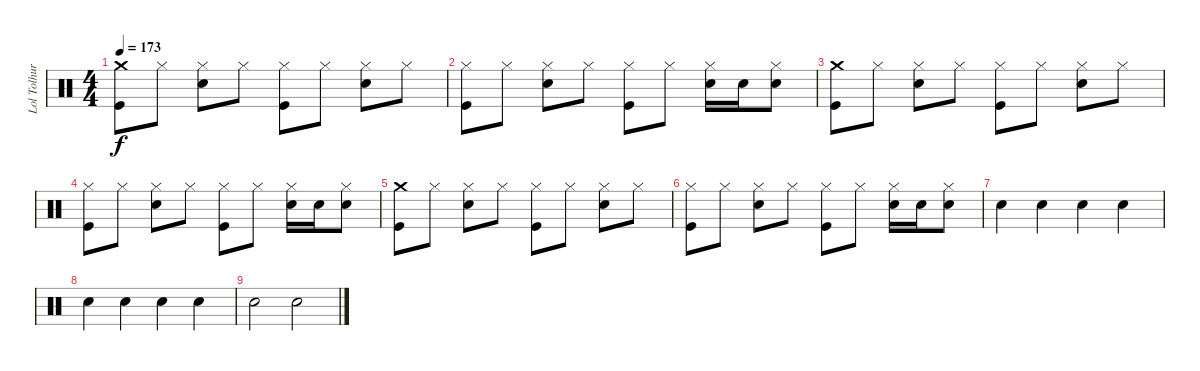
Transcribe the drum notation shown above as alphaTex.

\track ("Lol Tolhurst" "Lol Tolhur") {instrument percussion}
\staff {score}
\articulation defaults
\ts (4 4)
\tempo 173
\clef neutral
\ks c
("Crash medium (hit)" "Kick (hit)").8{dy f} "Hi-Hat (closed)".8 ("Hi-Hat (closed)" "Snare (hit) 2").8 "Hi-Hat (closed)".8 ("Hi-Hat (closed)" "Kick (hit)").8 "Hi-Hat (closed)".8 ("Hi-Hat (closed)" "Snare (hit) 2").8 "Hi-Hat (closed)".8 |
("Hi-Hat (closed)" "Kick (hit)").8 "Hi-Hat (closed)".8 ("Hi-Hat (closed)" "Snare (hit) 2").8 "Hi-Hat (closed)".8 ("Hi-Hat (closed)" "Kick (hit)").8 "Hi-Hat (closed)".8 ("Hi-Hat (closed)" "Snare (hit) 2").16 "Snare (hit) 2".16 ("Hi-Hat (closed)" "Snare (hit) 2").8 |
("Crash medium (hit)" "Kick (hit)").8 "Hi-Hat (closed)".8 ("Hi-Hat (closed)" "Snare (hit) 2").8 "Hi-Hat (closed)".8 ("Hi-Hat (closed)" "Kick (hit)").8 "Hi-Hat (closed)".8 ("Hi-Hat (closed)" "Snare (hit) 2").8 "Hi-Hat (closed)".8 |
("Hi-Hat (closed)" "Kick (hit)").8 "Hi-Hat (closed)".8 ("Hi-Hat (closed)" "Snare (hit) 2").8 "Hi-Hat (closed)".8 ("Hi-Hat (closed)" "Kick (hit)").8 "Hi-Hat (closed)".8 ("Hi-Hat (closed)" "Snare (hit) 2").16 "Snare (hit) 2".16 ("Hi-Hat (closed)" "Snare (hit) 2").8 |
("Crash medium (hit)" "Kick (hit)").8 "Hi-Hat (closed)".8 ("Hi-Hat (closed)" "Snare (hit) 2").8 "Hi-Hat (closed)".8 ("Hi-Hat (closed)" "Kick (hit)").8 "Hi-Hat (closed)".8 ("Hi-Hat (closed)" "Snare (hit) 2").8 "Hi-Hat (closed)".8 |
("Hi-Hat (closed)" "Kick (hit)").8 "Hi-Hat (closed)".8 ("Hi-Hat (closed)" "Snare (hit) 2").8 "Hi-Hat (closed)".8 ("Hi-Hat (closed)" "Kick (hit)").8 "Hi-Hat (closed)".8 ("Hi-Hat (closed)" "Snare (hit) 2").16 "Snare (hit) 2".16 ("Hi-Hat (closed)" "Snare (hit) 2").8 |
"Snare (hit) 2".4 "Snare (hit) 2".4 "Snare (hit) 2".4 "Snare (hit) 2".4 |
"Snare (hit) 2".4 "Snare (hit) 2".4 "Snare (hit) 2".4 "Snare (hit) 2".4 |
"Snare (hit) 2".2 "Snare (hit) 2".2
